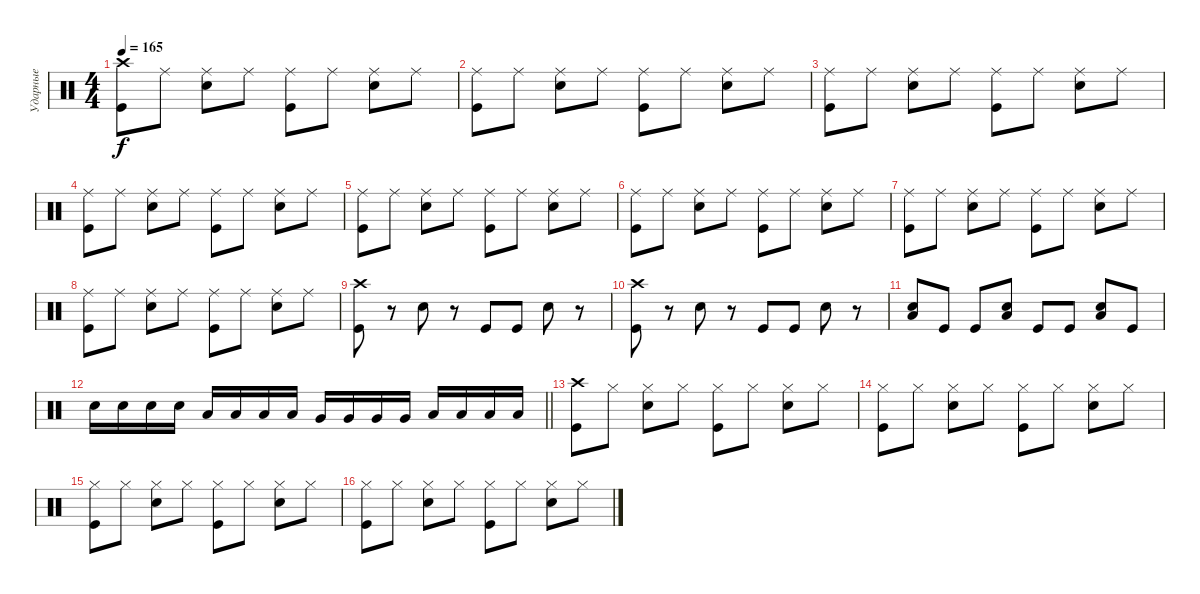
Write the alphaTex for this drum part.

\track ("Ударные" "Ударные") {instrument percussion}
\staff {score}
\articulation defaults
\ts (4 4)
\tempo 165
\clef neutral
\ks c
("Crash high (hit)" "Kick (hit)").8{dy f} "Ride (middle)".8 ("Ride (middle)" "Snare (hit) 2").8 "Ride (middle)".8 ("Ride (middle)" "Kick (hit)").8 "Ride (middle)".8 ("Ride (middle)" "Snare (hit) 2").8 "Ride (middle)".8 |
("Ride (middle)" "Kick (hit)").8 "Ride (middle)".8 ("Ride (middle)" "Snare (hit) 2").8 "Ride (middle)".8 ("Ride (middle)" "Kick (hit)").8 "Ride (middle)".8 ("Ride (middle)" "Snare (hit) 2").8 "Ride (middle)".8 |
("Ride (middle)" "Kick (hit)").8 "Ride (middle)".8 ("Ride (middle)" "Snare (hit) 2").8 "Ride (middle)".8 ("Ride (middle)" "Kick (hit)").8 "Ride (middle)".8 ("Ride (middle)" "Snare (hit) 2").8 "Ride (middle)".8 |
("Ride (middle)" "Kick (hit)").8 "Ride (middle)".8 ("Ride (middle)" "Snare (hit) 2").8 "Ride (middle)".8 ("Ride (middle)" "Kick (hit)").8 "Ride (middle)".8 ("Ride (middle)" "Snare (hit) 2").8 "Ride (middle)".8 |
("Ride (middle)" "Kick (hit)").8 "Ride (middle)".8 ("Ride (middle)" "Snare (hit) 2").8 "Ride (middle)".8 ("Ride (middle)" "Kick (hit)").8 "Ride (middle)".8 ("Ride (middle)" "Snare (hit) 2").8 "Ride (middle)".8 |
("Ride (middle)" "Kick (hit)").8 "Ride (middle)".8 ("Ride (middle)" "Snare (hit) 2").8 "Ride (middle)".8 ("Ride (middle)" "Kick (hit)").8 "Ride (middle)".8 ("Ride (middle)" "Snare (hit) 2").8 "Ride (middle)".8 |
("Ride (middle)" "Kick (hit)").8 "Ride (middle)".8 ("Ride (middle)" "Snare (hit) 2").8 "Ride (middle)".8 ("Ride (middle)" "Kick (hit)").8 "Ride (middle)".8 ("Ride (middle)" "Snare (hit) 2").8 "Ride (middle)".8 |
("Ride (middle)" "Kick (hit)").8 "Ride (middle)".8 ("Ride (middle)" "Snare (hit) 2").8 "Ride (middle)".8 ("Ride (middle)" "Kick (hit)").8 "Ride (middle)".8 ("Ride (middle)" "Snare (hit) 2").8 "Ride (middle)".8 |
("Crash high (hit)" "Kick (hit)").8 r.8 "Snare (hit) 2".8 r.8 "Kick (hit)".8 "Kick (hit)".8 "Snare (hit) 2".8 r.8 |
("Crash high (hit)" "Kick (hit)").8 r.8 "Snare (hit) 2".8 r.8 "Kick (hit)".8 "Kick (hit)".8 "Snare (hit) 2".8 r.8 |
("Snare (hit) 2" "Low Floor Tom (hit)").8 "Kick (hit)".8 "Kick (hit)".8 ("Snare (hit) 2" "Low Floor Tom (hit)").8 "Kick (hit)".8 "Kick (hit)".8 ("Snare (hit) 2" "Low Floor Tom (hit)").8 "Kick (hit)".8 |
\barLineRight lightlight "Snare (hit) 2".16 "Snare (hit) 2".16 "Snare (hit) 2".16 "Snare (hit) 2".16 "Low Tom (hit)".16 "Low Tom (hit)".16 "Low Tom (hit)".16 "Low Tom (hit)".16 "Very Low Tom (hit)".16 "Very Low Tom (hit)".16 "Very Low Tom (hit)".16 "Very Low Tom (hit)".16 "Low Floor Tom (hit)".16 "Low Floor Tom (hit)".16 "Low Floor Tom (hit)".16 "Low Floor Tom (hit)".16
|
("Crash high (hit)" "Kick (hit)").8 "Hi-Hat (closed)".8 ("Hi-Hat (closed)" "Snare (hit) 2").8 "Hi-Hat (closed)".8 ("Hi-Hat (closed)" "Kick (hit)").8 "Hi-Hat (closed)".8 ("Hi-Hat (closed)" "Snare (hit) 2").8 "Hi-Hat (closed)".8 |
("Hi-Hat (closed)" "Kick (hit)").8 "Hi-Hat (closed)".8 ("Hi-Hat (closed)" "Snare (hit) 2").8 "Hi-Hat (closed)".8 ("Hi-Hat (closed)" "Kick (hit)").8 "Hi-Hat (closed)".8 ("Hi-Hat (closed)" "Snare (hit) 2").8 "Hi-Hat (closed)".8 |
("Hi-Hat (closed)" "Kick (hit)").8 "Hi-Hat (closed)".8 ("Hi-Hat (closed)" "Snare (hit) 2").8 "Hi-Hat (closed)".8 ("Hi-Hat (closed)" "Kick (hit)").8 "Hi-Hat (closed)".8 ("Hi-Hat (closed)" "Snare (hit) 2").8 "Hi-Hat (closed)".8 |
("Hi-Hat (closed)" "Kick (hit)").8 "Hi-Hat (closed)".8 ("Hi-Hat (closed)" "Snare (hit) 2").8 "Hi-Hat (closed)".8 ("Hi-Hat (closed)" "Kick (hit)").8 "Hi-Hat (closed)".8 ("Hi-Hat (closed)" "Snare (hit) 2").8 "Hi-Hat (closed)".8
